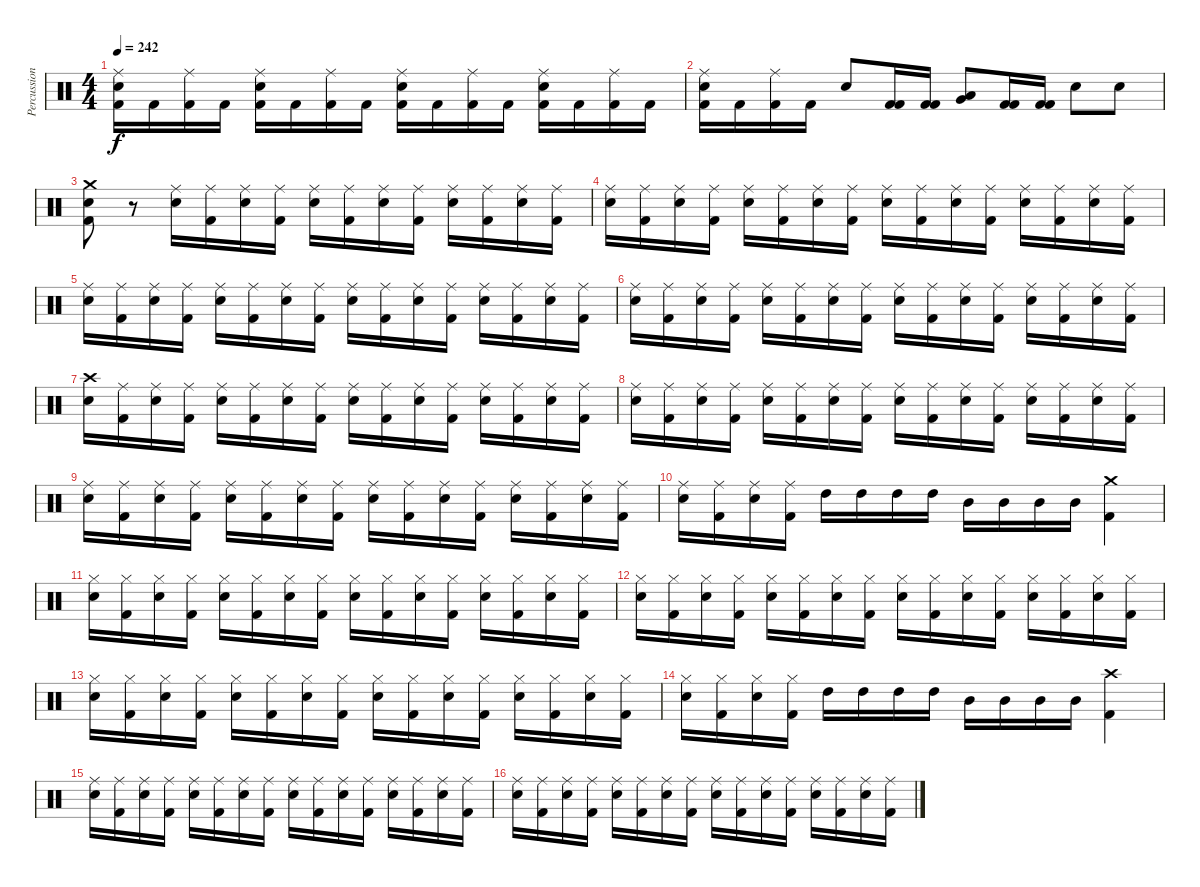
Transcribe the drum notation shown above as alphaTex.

\track ("Percussion" "Percussion") {instrument percussion}
\staff {score}
\articulation defaults
\ts (4 4)
\tempo 242
\clef neutral
\ks c
("Kick (hit) 2" "Ride (middle)" "Electric Snare (hit)").16{dy f} "Kick (hit) 2".16 ("Kick (hit) 2" "Ride (middle)").16 "Kick (hit) 2".16 ("Kick (hit) 2" "Ride (middle)" "Electric Snare (hit)").16 "Kick (hit) 2".16 ("Kick (hit) 2" "Ride (middle)").16 "Kick (hit) 2".16 ("Kick (hit) 2" "Ride (middle)" "Electric Snare (hit)").16 "Kick (hit) 2".16 ("Kick (hit) 2" "Ride (middle)").16 "Kick (hit) 2".16 ("Kick (hit) 2" "Ride (middle)" "Electric Snare (hit)").16 "Kick (hit) 2".16 ("Kick (hit) 2" "Ride (middle)").16 "Kick (hit) 2".16 |
("Kick (hit) 2" "Ride (middle)" "Electric Snare (hit)").16 "Kick (hit) 2".16 ("Kick (hit) 2" "Ride (middle)").16 "Kick (hit) 2".16 "Electric Snare (hit)".8 ("Kick (hit) 2" "Kick (hit) 2").16 ("Kick (hit) 2" "Kick (hit) 2").16 ("Very Low Tom (hit)" "Low Tom (hit)").8 ("Kick (hit) 2" "Kick (hit) 2").16 ("Kick (hit) 2" "Kick (hit) 2").16 "Electric Snare (hit)".8 "Electric Snare (hit)".8 |
("Kick (hit) 2" "Crash medium (hit)" "Electric Snare (hit)").8 r.8 ("Ride (middle)" "Electric Snare (hit)").16 ("Kick (hit) 2" "Ride (middle)").16 ("Ride (middle)" "Electric Snare (hit)").16 ("Kick (hit) 2" "Ride (middle)").16 ("Ride (middle)" "Electric Snare (hit)").16 ("Kick (hit) 2" "Ride (middle)").16 ("Ride (middle)" "Electric Snare (hit)").16 ("Kick (hit) 2" "Ride (middle)").16 ("Ride (middle)" "Electric Snare (hit)").16 ("Kick (hit) 2" "Ride (middle)").16 ("Ride (middle)" "Electric Snare (hit)").16 ("Kick (hit) 2" "Ride (middle)").16 |
("Ride (middle)" "Electric Snare (hit)").16 ("Kick (hit) 2" "Ride (middle)").16 ("Ride (middle)" "Electric Snare (hit)").16 ("Kick (hit) 2" "Ride (middle)").16 ("Ride (middle)" "Electric Snare (hit)").16 ("Kick (hit) 2" "Ride (middle)").16 ("Ride (middle)" "Electric Snare (hit)").16 ("Kick (hit) 2" "Ride (middle)").16 ("Ride (middle)" "Electric Snare (hit)").16 ("Kick (hit) 2" "Ride (middle)").16 ("Ride (middle)" "Electric Snare (hit)").16 ("Kick (hit) 2" "Ride (middle)").16 ("Ride (middle)" "Electric Snare (hit)").16 ("Kick (hit) 2" "Ride (middle)").16 ("Ride (middle)" "Electric Snare (hit)").16 ("Kick (hit) 2" "Ride (middle)").16 |
("Ride (middle)" "Electric Snare (hit)").16 ("Kick (hit) 2" "Ride (middle)").16 ("Ride (middle)" "Electric Snare (hit)").16 ("Kick (hit) 2" "Ride (middle)").16 ("Ride (middle)" "Electric Snare (hit)").16 ("Kick (hit) 2" "Ride (middle)").16 ("Ride (middle)" "Electric Snare (hit)").16 ("Kick (hit) 2" "Ride (middle)").16 ("Ride (middle)" "Electric Snare (hit)").16 ("Kick (hit) 2" "Ride (middle)").16 ("Ride (middle)" "Electric Snare (hit)").16 ("Kick (hit) 2" "Ride (middle)").16 ("Ride (middle)" "Electric Snare (hit)").16 ("Kick (hit) 2" "Ride (middle)").16 ("Ride (middle)" "Electric Snare (hit)").16 ("Kick (hit) 2" "Ride (middle)").16 |
("Ride (middle)" "Electric Snare (hit)").16 ("Kick (hit) 2" "Ride (middle)").16 ("Ride (middle)" "Electric Snare (hit)").16 ("Kick (hit) 2" "Ride (middle)").16 ("Ride (middle)" "Electric Snare (hit)").16 ("Kick (hit) 2" "Ride (middle)").16 ("Ride (middle)" "Electric Snare (hit)").16 ("Kick (hit) 2" "Ride (middle)").16 ("Ride (middle)" "Electric Snare (hit)").16 ("Kick (hit) 2" "Ride (middle)").16 ("Ride (middle)" "Electric Snare (hit)").16 ("Kick (hit) 2" "Ride (middle)").16 ("Ride (middle)" "Electric Snare (hit)").16 ("Kick (hit) 2" "Ride (middle)").16 ("Ride (middle)" "Electric Snare (hit)").16 ("Kick (hit) 2" "Ride (middle)").16 |
("Crash high (hit)" "Electric Snare (hit)").16 ("Kick (hit) 2" "Ride (middle)").16 ("Ride (middle)" "Electric Snare (hit)").16 ("Kick (hit) 2" "Ride (middle)").16 ("Ride (middle)" "Electric Snare (hit)").16 ("Kick (hit) 2" "Ride (middle)").16 ("Ride (middle)" "Electric Snare (hit)").16 ("Kick (hit) 2" "Ride (middle)").16 ("Ride (middle)" "Electric Snare (hit)").16 ("Kick (hit) 2" "Ride (middle)").16 ("Ride (middle)" "Electric Snare (hit)").16 ("Kick (hit) 2" "Ride (middle)").16 ("Ride (middle)" "Electric Snare (hit)").16 ("Kick (hit) 2" "Ride (middle)").16 ("Ride (middle)" "Electric Snare (hit)").16 ("Kick (hit) 2" "Ride (middle)").16 |
("Ride (middle)" "Electric Snare (hit)").16 ("Kick (hit) 2" "Ride (middle)").16 ("Ride (middle)" "Electric Snare (hit)").16 ("Kick (hit) 2" "Ride (middle)").16 ("Ride (middle)" "Electric Snare (hit)").16 ("Kick (hit) 2" "Ride (middle)").16 ("Ride (middle)" "Electric Snare (hit)").16 ("Kick (hit) 2" "Ride (middle)").16 ("Ride (middle)" "Electric Snare (hit)").16 ("Kick (hit) 2" "Ride (middle)").16 ("Ride (middle)" "Electric Snare (hit)").16 ("Kick (hit) 2" "Ride (middle)").16 ("Ride (middle)" "Electric Snare (hit)").16 ("Kick (hit) 2" "Ride (middle)").16 ("Ride (middle)" "Electric Snare (hit)").16 ("Kick (hit) 2" "Ride (middle)").16 |
("Ride (middle)" "Electric Snare (hit)").16 ("Kick (hit) 2" "Ride (middle)").16 ("Ride (middle)" "Electric Snare (hit)").16 ("Kick (hit) 2" "Ride (middle)").16 ("Ride (middle)" "Electric Snare (hit)").16 ("Kick (hit) 2" "Ride (middle)").16 ("Ride (middle)" "Electric Snare (hit)").16 ("Kick (hit) 2" "Ride (middle)").16 ("Ride (middle)" "Electric Snare (hit)").16 ("Kick (hit) 2" "Ride (middle)").16 ("Ride (middle)" "Electric Snare (hit)").16 ("Kick (hit) 2" "Ride (middle)").16 ("Ride (middle)" "Electric Snare (hit)").16 ("Kick (hit) 2" "Ride (middle)").16 ("Ride (middle)" "Electric Snare (hit)").16 ("Kick (hit) 2" "Ride (middle)").16 |
("Ride (middle)" "Electric Snare (hit)").16 ("Kick (hit) 2" "Ride (middle)").16 ("Ride (middle)" "Electric Snare (hit)").16 ("Kick (hit) 2" "Ride (middle)").16 "High Tom (hit)".16 "High Tom (hit)".16 "High Tom (hit)".16 "High Tom (hit)".16 "Mid Tom (hit)".16 "Mid Tom (hit)".16 "Mid Tom (hit)".16 "Mid Tom (hit)".16 ("Kick (hit) 2" "Crash medium (hit)").4 |
("Hi-Hat (closed)" "Electric Snare (hit)").16 ("Kick (hit) 2" "Hi-Hat (closed)").16 ("Hi-Hat (closed)" "Electric Snare (hit)").16 ("Kick (hit) 2" "Hi-Hat (closed)").16 ("Hi-Hat (closed)" "Electric Snare (hit)").16 ("Kick (hit) 2" "Hi-Hat (closed)").16 ("Hi-Hat (closed)" "Electric Snare (hit)").16 ("Kick (hit) 2" "Hi-Hat (closed)").16 ("Hi-Hat (closed)" "Electric Snare (hit)").16 ("Kick (hit) 2" "Hi-Hat (closed)").16 ("Hi-Hat (closed)" "Electric Snare (hit)").16 ("Kick (hit) 2" "Hi-Hat (closed)").16 ("Hi-Hat (closed)" "Electric Snare (hit)").16 ("Kick (hit) 2" "Hi-Hat (closed)").16 ("Hi-Hat (closed)" "Electric Snare (hit)").16 ("Kick (hit) 2" "Hi-Hat (closed)").16 |
("Hi-Hat (closed)" "Electric Snare (hit)").16 ("Kick (hit) 2" "Hi-Hat (closed)").16 ("Hi-Hat (closed)" "Electric Snare (hit)").16 ("Kick (hit) 2" "Hi-Hat (closed)").16 ("Hi-Hat (closed)" "Electric Snare (hit)").16 ("Kick (hit) 2" "Hi-Hat (closed)").16 ("Hi-Hat (closed)" "Electric Snare (hit)").16 ("Kick (hit) 2" "Hi-Hat (closed)").16 ("Hi-Hat (closed)" "Electric Snare (hit)").16 ("Kick (hit) 2" "Hi-Hat (closed)").16 ("Hi-Hat (closed)" "Electric Snare (hit)").16 ("Kick (hit) 2" "Hi-Hat (closed)").16 ("Hi-Hat (closed)" "Electric Snare (hit)").16 ("Kick (hit) 2" "Hi-Hat (closed)").16 ("Hi-Hat (closed)" "Electric Snare (hit)").16 ("Kick (hit) 2" "Hi-Hat (closed)").16 |
("Hi-Hat (closed)" "Electric Snare (hit)").16 ("Kick (hit) 2" "Hi-Hat (closed)").16 ("Hi-Hat (closed)" "Electric Snare (hit)").16 ("Kick (hit) 2" "Hi-Hat (closed)").16 ("Hi-Hat (closed)" "Electric Snare (hit)").16 ("Kick (hit) 2" "Hi-Hat (closed)").16 ("Hi-Hat (closed)" "Electric Snare (hit)").16 ("Kick (hit) 2" "Hi-Hat (closed)").16 ("Hi-Hat (closed)" "Electric Snare (hit)").16 ("Kick (hit) 2" "Hi-Hat (closed)").16 ("Hi-Hat (closed)" "Electric Snare (hit)").16 ("Kick (hit) 2" "Hi-Hat (closed)").16 ("Hi-Hat (closed)" "Electric Snare (hit)").16 ("Kick (hit) 2" "Hi-Hat (closed)").16 ("Hi-Hat (closed)" "Electric Snare (hit)").16 ("Kick (hit) 2" "Hi-Hat (closed)").16 |
("Hi-Hat (closed)" "Electric Snare (hit)").16 ("Kick (hit) 2" "Hi-Hat (closed)").16 ("Hi-Hat (closed)" "Electric Snare (hit)").16 ("Kick (hit) 2" "Hi-Hat (closed)").16 "High Tom (hit)".16 "High Tom (hit)".16 "High Tom (hit)".16 "High Tom (hit)".16 "Mid Tom (hit)".16 "Mid Tom (hit)".16 "Mid Tom (hit)".16 "Mid Tom (hit)".16 ("Kick (hit) 2" "Crash high (hit)").4 |
("Ride (middle)" "Electric Snare (hit)").16 ("Kick (hit) 2" "Ride (middle)").16 ("Ride (middle)" "Electric Snare (hit)").16 ("Kick (hit) 2" "Ride (middle)").16 ("Ride (middle)" "Electric Snare (hit)").16 ("Kick (hit) 2" "Ride (middle)").16 ("Ride (middle)" "Electric Snare (hit)").16 ("Kick (hit) 2" "Ride (middle)").16 ("Ride (middle)" "Electric Snare (hit)").16 ("Kick (hit) 2" "Ride (middle)").16 ("Ride (middle)" "Electric Snare (hit)").16 ("Kick (hit) 2" "Ride (middle)").16 ("Ride (middle)" "Electric Snare (hit)").16 ("Kick (hit) 2" "Ride (middle)").16 ("Ride (middle)" "Electric Snare (hit)").16 ("Kick (hit) 2" "Ride (middle)").16 |
("Ride (middle)" "Electric Snare (hit)").16 ("Kick (hit) 2" "Ride (middle)").16 ("Ride (middle)" "Electric Snare (hit)").16 ("Kick (hit) 2" "Ride (middle)").16 ("Ride (middle)" "Electric Snare (hit)").16 ("Kick (hit) 2" "Ride (middle)").16 ("Ride (middle)" "Electric Snare (hit)").16 ("Kick (hit) 2" "Ride (middle)").16 ("Ride (middle)" "Electric Snare (hit)").16 ("Kick (hit) 2" "Ride (middle)").16 ("Ride (middle)" "Electric Snare (hit)").16 ("Kick (hit) 2" "Ride (middle)").16 ("Ride (middle)" "Electric Snare (hit)").16 ("Kick (hit) 2" "Ride (middle)").16 ("Ride (middle)" "Electric Snare (hit)").16 ("Kick (hit) 2" "Ride (middle)").16
